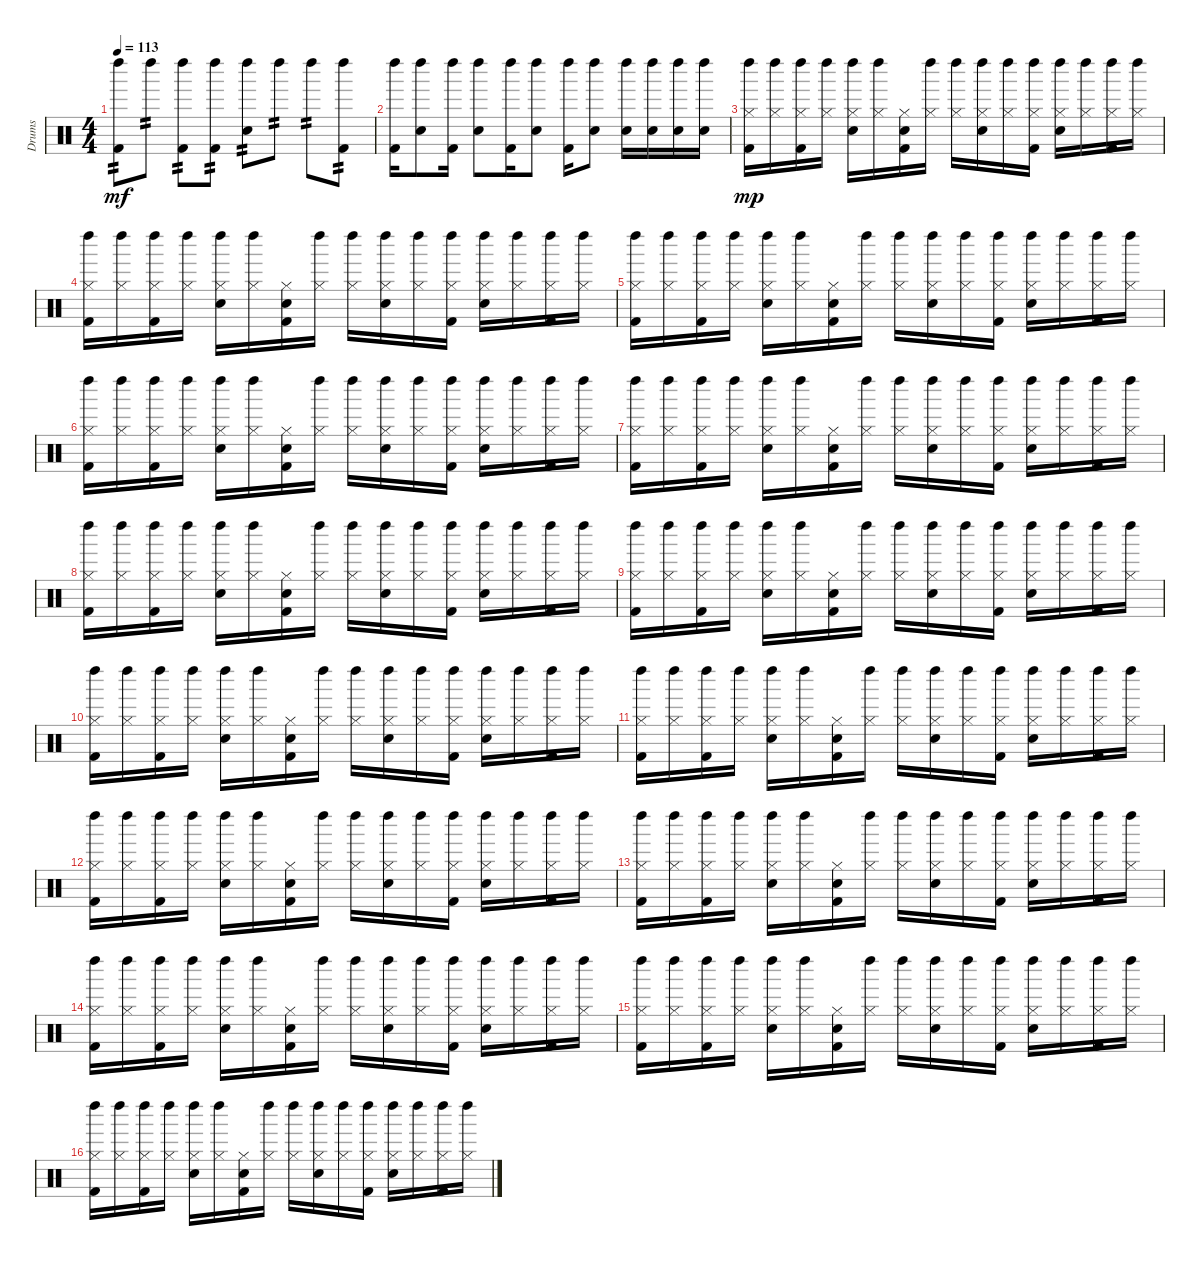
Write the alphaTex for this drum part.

\track ("Drums" "Drums") {instrument percussion}
\staff {score}
\articulation defaults
\ts (4 4)
\tempo 113
\clef neutral
\ks c
("Left Maraca (hit)" "Kick (hit) 2").8{tp 2 dy mf} "Left Maraca (hit)".8{tp 2} ("Left Maraca (hit)" "Kick (hit) 2").8{tp 2} ("Left Maraca (hit)" "Kick (hit) 2").8{tp 2} ("Left Maraca (hit)" "Snare (hit) 2").8{tp 2} "Left Maraca (hit)".8{tp 2} "Left Maraca (hit)".8{tp 2} ("Left Maraca (hit)" "Kick (hit) 2").8{tp 2} |
("Left Maraca (hit)" "Kick (hit) 2").16 ("Left Maraca (hit)" "Snare (hit) 2").8 ("Left Maraca (hit)" "Kick (hit) 2").16 ("Left Maraca (hit)" "Snare (hit) 2").8 ("Left Maraca (hit)" "Kick (hit) 2").16 ("Left Maraca (hit)" "Snare (hit) 2").8 ("Left Maraca (hit)" "Kick (hit) 2").16 ("Left Maraca (hit)" "Snare (hit) 2").8 ("Left Maraca (hit)" "Snare (hit) 2").16 ("Left Maraca (hit)" "Snare (hit) 2").16 ("Left Maraca (hit)" "Snare (hit) 2").16 ("Left Maraca (hit)" "Snare (hit) 2").16 |
("Hi-Hat (closed)" "Left Maraca (hit)" "Kick (hit) 2").16{dy mp} ("Hi-Hat (closed)" "Left Maraca (hit)").16 ("Hi-Hat (closed)" "Left Maraca (hit)" "Kick (hit) 2").16 ("Hi-Hat (closed)" "Left Maraca (hit)").16 ("Hi-Hat (closed)" "Left Maraca (hit)" "Snare (hit) 2").16 ("Hi-Hat (closed)" "Left Maraca (hit)").16 ("Hi-Hat (closed)" "Snare (hit)" "Kick (hit) 2").16 ("Hi-Hat (closed)" "Left Maraca (hit)").16 ("Hi-Hat (closed)" "Left Maraca (hit)").16 ("Hi-Hat (closed)" "Left Maraca (hit)" "Snare (hit) 2").16 ("Hi-Hat (closed)" "Left Maraca (hit)").16 ("Hi-Hat (closed)" "Left Maraca (hit)" "Kick (hit) 2").16 ("Hi-Hat (closed)" "Left Maraca (hit)" "Snare (hit) 2").16 ("Hi-Hat (closed)" "Left Maraca (hit)").16 ("Hi-Hat (closed)" "Left Maraca (hit)" "Kick (hit) 2").16 ("Hi-Hat (closed)" "Left Maraca (hit)").16 |
("Hi-Hat (closed)" "Left Maraca (hit)" "Kick (hit) 2").16 ("Hi-Hat (closed)" "Left Maraca (hit)").16 ("Hi-Hat (closed)" "Left Maraca (hit)" "Kick (hit) 2").16 ("Hi-Hat (closed)" "Left Maraca (hit)").16 ("Hi-Hat (closed)" "Left Maraca (hit)" "Snare (hit) 2").16 ("Hi-Hat (closed)" "Left Maraca (hit)").16 ("Hi-Hat (closed)" "Snare (hit)" "Kick (hit) 2").16 ("Hi-Hat (closed)" "Left Maraca (hit)").16 ("Hi-Hat (closed)" "Left Maraca (hit)").16 ("Hi-Hat (closed)" "Left Maraca (hit)" "Snare (hit) 2").16 ("Hi-Hat (closed)" "Left Maraca (hit)").16 ("Hi-Hat (closed)" "Left Maraca (hit)" "Kick (hit) 2").16 ("Hi-Hat (closed)" "Left Maraca (hit)" "Snare (hit) 2").16 ("Hi-Hat (closed)" "Left Maraca (hit)").16 ("Hi-Hat (closed)" "Left Maraca (hit)" "Kick (hit) 2").16 ("Hi-Hat (closed)" "Left Maraca (hit)").16 |
("Hi-Hat (closed)" "Left Maraca (hit)" "Kick (hit) 2").16 ("Hi-Hat (closed)" "Left Maraca (hit)").16 ("Hi-Hat (closed)" "Left Maraca (hit)" "Kick (hit) 2").16 ("Hi-Hat (closed)" "Left Maraca (hit)").16 ("Hi-Hat (closed)" "Left Maraca (hit)" "Snare (hit) 2").16 ("Hi-Hat (closed)" "Left Maraca (hit)").16 ("Hi-Hat (closed)" "Snare (hit)" "Kick (hit) 2").16 ("Hi-Hat (closed)" "Left Maraca (hit)").16 ("Hi-Hat (closed)" "Left Maraca (hit)").16 ("Hi-Hat (closed)" "Left Maraca (hit)" "Snare (hit) 2").16 ("Hi-Hat (closed)" "Left Maraca (hit)").16 ("Hi-Hat (closed)" "Left Maraca (hit)" "Kick (hit) 2").16 ("Hi-Hat (closed)" "Left Maraca (hit)" "Snare (hit) 2").16 ("Hi-Hat (closed)" "Left Maraca (hit)").16 ("Hi-Hat (closed)" "Left Maraca (hit)" "Kick (hit) 2").16 ("Hi-Hat (closed)" "Left Maraca (hit)").16 |
("Hi-Hat (closed)" "Left Maraca (hit)" "Kick (hit) 2").16 ("Hi-Hat (closed)" "Left Maraca (hit)").16 ("Hi-Hat (closed)" "Left Maraca (hit)" "Kick (hit) 2").16 ("Hi-Hat (closed)" "Left Maraca (hit)").16 ("Hi-Hat (closed)" "Left Maraca (hit)" "Snare (hit) 2").16 ("Hi-Hat (closed)" "Left Maraca (hit)").16 ("Hi-Hat (closed)" "Snare (hit)" "Kick (hit) 2").16 ("Hi-Hat (closed)" "Left Maraca (hit)").16 ("Hi-Hat (closed)" "Left Maraca (hit)").16 ("Hi-Hat (closed)" "Left Maraca (hit)" "Snare (hit) 2").16 ("Hi-Hat (closed)" "Left Maraca (hit)").16 ("Hi-Hat (closed)" "Left Maraca (hit)" "Kick (hit) 2").16 ("Hi-Hat (closed)" "Left Maraca (hit)" "Snare (hit) 2").16 ("Hi-Hat (closed)" "Left Maraca (hit)").16 ("Hi-Hat (closed)" "Left Maraca (hit)" "Kick (hit) 2").16 ("Hi-Hat (closed)" "Left Maraca (hit)").16 |
("Hi-Hat (closed)" "Left Maraca (hit)" "Kick (hit) 2").16 ("Hi-Hat (closed)" "Left Maraca (hit)").16 ("Hi-Hat (closed)" "Left Maraca (hit)" "Kick (hit) 2").16 ("Hi-Hat (closed)" "Left Maraca (hit)").16 ("Hi-Hat (closed)" "Left Maraca (hit)" "Snare (hit) 2").16 ("Hi-Hat (closed)" "Left Maraca (hit)").16 ("Hi-Hat (closed)" "Snare (hit)" "Kick (hit) 2").16 ("Hi-Hat (closed)" "Left Maraca (hit)").16 ("Hi-Hat (closed)" "Left Maraca (hit)").16 ("Hi-Hat (closed)" "Left Maraca (hit)" "Snare (hit) 2").16 ("Hi-Hat (closed)" "Left Maraca (hit)").16 ("Hi-Hat (closed)" "Left Maraca (hit)" "Kick (hit) 2").16 ("Hi-Hat (closed)" "Left Maraca (hit)" "Snare (hit) 2").16 ("Hi-Hat (closed)" "Left Maraca (hit)").16 ("Hi-Hat (closed)" "Left Maraca (hit)" "Kick (hit) 2").16 ("Hi-Hat (closed)" "Left Maraca (hit)").16 |
("Hi-Hat (closed)" "Left Maraca (hit)" "Kick (hit) 2").16 ("Hi-Hat (closed)" "Left Maraca (hit)").16 ("Hi-Hat (closed)" "Left Maraca (hit)" "Kick (hit) 2").16 ("Hi-Hat (closed)" "Left Maraca (hit)").16 ("Hi-Hat (closed)" "Left Maraca (hit)" "Snare (hit) 2").16 ("Hi-Hat (closed)" "Left Maraca (hit)").16 ("Hi-Hat (closed)" "Snare (hit)" "Kick (hit) 2").16 ("Hi-Hat (closed)" "Left Maraca (hit)").16 ("Hi-Hat (closed)" "Left Maraca (hit)").16 ("Hi-Hat (closed)" "Left Maraca (hit)" "Snare (hit) 2").16 ("Hi-Hat (closed)" "Left Maraca (hit)").16 ("Hi-Hat (closed)" "Left Maraca (hit)" "Kick (hit) 2").16 ("Hi-Hat (closed)" "Left Maraca (hit)" "Snare (hit) 2").16 ("Hi-Hat (closed)" "Left Maraca (hit)").16 ("Hi-Hat (closed)" "Left Maraca (hit)" "Kick (hit) 2").16 ("Hi-Hat (closed)" "Left Maraca (hit)").16 |
("Hi-Hat (closed)" "Left Maraca (hit)" "Kick (hit) 2").16 ("Hi-Hat (closed)" "Left Maraca (hit)").16 ("Hi-Hat (closed)" "Left Maraca (hit)" "Kick (hit) 2").16 ("Hi-Hat (closed)" "Left Maraca (hit)").16 ("Hi-Hat (closed)" "Left Maraca (hit)" "Snare (hit) 2").16 ("Hi-Hat (closed)" "Left Maraca (hit)").16 ("Hi-Hat (closed)" "Snare (hit)" "Kick (hit) 2").16 ("Hi-Hat (closed)" "Left Maraca (hit)").16 ("Hi-Hat (closed)" "Left Maraca (hit)").16 ("Hi-Hat (closed)" "Left Maraca (hit)" "Snare (hit) 2").16 ("Hi-Hat (closed)" "Left Maraca (hit)").16 ("Hi-Hat (closed)" "Left Maraca (hit)" "Kick (hit) 2").16 ("Hi-Hat (closed)" "Left Maraca (hit)" "Snare (hit) 2").16 ("Hi-Hat (closed)" "Left Maraca (hit)").16 ("Hi-Hat (closed)" "Left Maraca (hit)" "Kick (hit) 2").16 ("Hi-Hat (closed)" "Left Maraca (hit)").16 |
("Hi-Hat (closed)" "Left Maraca (hit)" "Kick (hit) 2").16 ("Hi-Hat (closed)" "Left Maraca (hit)").16 ("Hi-Hat (closed)" "Left Maraca (hit)" "Kick (hit) 2").16 ("Hi-Hat (closed)" "Left Maraca (hit)").16 ("Hi-Hat (closed)" "Left Maraca (hit)" "Snare (hit) 2").16 ("Hi-Hat (closed)" "Left Maraca (hit)").16 ("Hi-Hat (closed)" "Snare (hit)" "Kick (hit) 2").16 ("Hi-Hat (closed)" "Left Maraca (hit)").16 ("Hi-Hat (closed)" "Left Maraca (hit)").16 ("Hi-Hat (closed)" "Left Maraca (hit)" "Snare (hit) 2").16 ("Hi-Hat (closed)" "Left Maraca (hit)").16 ("Hi-Hat (closed)" "Left Maraca (hit)" "Kick (hit) 2").16 ("Hi-Hat (closed)" "Left Maraca (hit)" "Snare (hit) 2").16 ("Hi-Hat (closed)" "Left Maraca (hit)").16 ("Hi-Hat (closed)" "Left Maraca (hit)" "Kick (hit) 2").16 ("Hi-Hat (closed)" "Left Maraca (hit)").16 |
("Hi-Hat (closed)" "Left Maraca (hit)" "Kick (hit) 2").16 ("Hi-Hat (closed)" "Left Maraca (hit)").16 ("Hi-Hat (closed)" "Left Maraca (hit)" "Kick (hit) 2").16 ("Hi-Hat (closed)" "Left Maraca (hit)").16 ("Hi-Hat (closed)" "Left Maraca (hit)" "Snare (hit) 2").16 ("Hi-Hat (closed)" "Left Maraca (hit)").16 ("Hi-Hat (closed)" "Snare (hit)" "Kick (hit) 2").16 ("Hi-Hat (closed)" "Left Maraca (hit)").16 ("Hi-Hat (closed)" "Left Maraca (hit)").16 ("Hi-Hat (closed)" "Left Maraca (hit)" "Snare (hit) 2").16 ("Hi-Hat (closed)" "Left Maraca (hit)").16 ("Hi-Hat (closed)" "Left Maraca (hit)" "Kick (hit) 2").16 ("Hi-Hat (closed)" "Left Maraca (hit)" "Snare (hit) 2").16 ("Hi-Hat (closed)" "Left Maraca (hit)").16 ("Hi-Hat (closed)" "Left Maraca (hit)" "Kick (hit) 2").16 ("Hi-Hat (closed)" "Left Maraca (hit)").16 |
("Hi-Hat (closed)" "Left Maraca (hit)" "Kick (hit) 2").16 ("Hi-Hat (closed)" "Left Maraca (hit)").16 ("Hi-Hat (closed)" "Left Maraca (hit)" "Kick (hit) 2").16 ("Hi-Hat (closed)" "Left Maraca (hit)").16 ("Hi-Hat (closed)" "Left Maraca (hit)" "Snare (hit) 2").16 ("Hi-Hat (closed)" "Left Maraca (hit)").16 ("Hi-Hat (closed)" "Snare (hit)" "Kick (hit) 2").16 ("Hi-Hat (closed)" "Left Maraca (hit)").16 ("Hi-Hat (closed)" "Left Maraca (hit)").16 ("Hi-Hat (closed)" "Left Maraca (hit)" "Snare (hit) 2").16 ("Hi-Hat (closed)" "Left Maraca (hit)").16 ("Hi-Hat (closed)" "Left Maraca (hit)" "Kick (hit) 2").16 ("Hi-Hat (closed)" "Left Maraca (hit)" "Snare (hit) 2").16 ("Hi-Hat (closed)" "Left Maraca (hit)").16 ("Hi-Hat (closed)" "Left Maraca (hit)" "Kick (hit) 2").16 ("Hi-Hat (closed)" "Left Maraca (hit)").16 |
("Hi-Hat (closed)" "Left Maraca (hit)" "Kick (hit) 2").16 ("Hi-Hat (closed)" "Left Maraca (hit)").16 ("Hi-Hat (closed)" "Left Maraca (hit)" "Kick (hit) 2").16 ("Hi-Hat (closed)" "Left Maraca (hit)").16 ("Hi-Hat (closed)" "Left Maraca (hit)" "Snare (hit) 2").16 ("Hi-Hat (closed)" "Left Maraca (hit)").16 ("Hi-Hat (closed)" "Snare (hit)" "Kick (hit) 2").16 ("Hi-Hat (closed)" "Left Maraca (hit)").16 ("Hi-Hat (closed)" "Left Maraca (hit)").16 ("Hi-Hat (closed)" "Left Maraca (hit)" "Snare (hit) 2").16 ("Hi-Hat (closed)" "Left Maraca (hit)").16 ("Hi-Hat (closed)" "Left Maraca (hit)" "Kick (hit) 2").16 ("Hi-Hat (closed)" "Left Maraca (hit)" "Snare (hit) 2").16 ("Hi-Hat (closed)" "Left Maraca (hit)").16 ("Hi-Hat (closed)" "Left Maraca (hit)" "Kick (hit) 2").16 ("Hi-Hat (closed)" "Left Maraca (hit)").16 |
("Hi-Hat (closed)" "Left Maraca (hit)" "Kick (hit) 2").16 ("Hi-Hat (closed)" "Left Maraca (hit)").16 ("Hi-Hat (closed)" "Left Maraca (hit)" "Kick (hit) 2").16 ("Hi-Hat (closed)" "Left Maraca (hit)").16 ("Hi-Hat (closed)" "Left Maraca (hit)" "Snare (hit) 2").16 ("Hi-Hat (closed)" "Left Maraca (hit)").16 ("Hi-Hat (closed)" "Snare (hit)" "Kick (hit) 2").16 ("Hi-Hat (closed)" "Left Maraca (hit)").16 ("Hi-Hat (closed)" "Left Maraca (hit)").16 ("Hi-Hat (closed)" "Left Maraca (hit)" "Snare (hit) 2").16 ("Hi-Hat (closed)" "Left Maraca (hit)").16 ("Hi-Hat (closed)" "Left Maraca (hit)" "Kick (hit) 2").16 ("Hi-Hat (closed)" "Left Maraca (hit)" "Snare (hit) 2").16 ("Hi-Hat (closed)" "Left Maraca (hit)").16 ("Hi-Hat (closed)" "Left Maraca (hit)" "Kick (hit) 2").16 ("Hi-Hat (closed)" "Left Maraca (hit)").16 |
("Hi-Hat (closed)" "Left Maraca (hit)" "Kick (hit) 2").16 ("Hi-Hat (closed)" "Left Maraca (hit)").16 ("Hi-Hat (closed)" "Left Maraca (hit)" "Kick (hit) 2").16 ("Hi-Hat (closed)" "Left Maraca (hit)").16 ("Hi-Hat (closed)" "Left Maraca (hit)" "Snare (hit) 2").16 ("Hi-Hat (closed)" "Left Maraca (hit)").16 ("Hi-Hat (closed)" "Snare (hit)" "Kick (hit) 2").16 ("Hi-Hat (closed)" "Left Maraca (hit)").16 ("Hi-Hat (closed)" "Left Maraca (hit)").16 ("Hi-Hat (closed)" "Left Maraca (hit)" "Snare (hit) 2").16 ("Hi-Hat (closed)" "Left Maraca (hit)").16 ("Hi-Hat (closed)" "Left Maraca (hit)" "Kick (hit) 2").16 ("Hi-Hat (closed)" "Left Maraca (hit)" "Snare (hit) 2").16 ("Hi-Hat (closed)" "Left Maraca (hit)").16 ("Hi-Hat (closed)" "Left Maraca (hit)" "Kick (hit) 2").16 ("Hi-Hat (closed)" "Left Maraca (hit)").16 |
("Hi-Hat (closed)" "Left Maraca (hit)" "Kick (hit) 2").16 ("Hi-Hat (closed)" "Left Maraca (hit)").16 ("Hi-Hat (closed)" "Left Maraca (hit)" "Kick (hit) 2").16 ("Hi-Hat (closed)" "Left Maraca (hit)").16 ("Hi-Hat (closed)" "Left Maraca (hit)" "Snare (hit) 2").16 ("Hi-Hat (closed)" "Left Maraca (hit)").16 ("Hi-Hat (closed)" "Snare (hit)" "Kick (hit) 2").16 ("Hi-Hat (closed)" "Left Maraca (hit)").16 ("Hi-Hat (closed)" "Left Maraca (hit)").16 ("Hi-Hat (closed)" "Left Maraca (hit)" "Snare (hit) 2").16 ("Hi-Hat (closed)" "Left Maraca (hit)").16 ("Hi-Hat (closed)" "Left Maraca (hit)" "Kick (hit) 2").16 ("Hi-Hat (closed)" "Left Maraca (hit)" "Snare (hit) 2").16 ("Hi-Hat (closed)" "Left Maraca (hit)").16 ("Hi-Hat (closed)" "Left Maraca (hit)" "Kick (hit) 2").16 ("Hi-Hat (closed)" "Left Maraca (hit)").16
